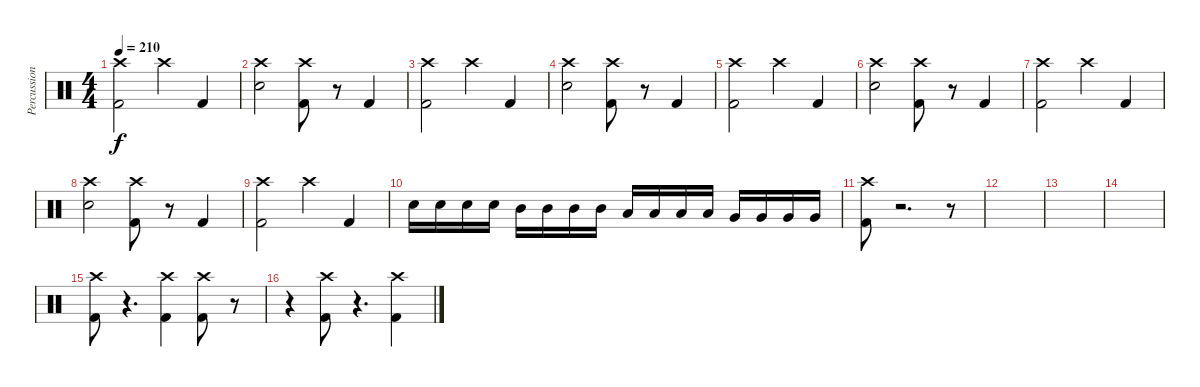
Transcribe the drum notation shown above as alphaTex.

\track ("Percussion" "Percussion") {instrument percussion}
\staff {score}
\articulation defaults
\ts (4 4)
\tempo 210
\clef neutral
\ks c
("Crash high (hit)" "Kick (hit) 2").2{dy f} "Crash high (hit)".4 "Kick (hit) 2".4 |
("Crash high (hit)" "Electric Snare (hit)").2 ("Crash high (hit)" "Kick (hit) 2").8 r.8 "Kick (hit) 2".4 |
("Crash high (hit)" "Kick (hit) 2").2 "Crash high (hit)".4 "Kick (hit) 2".4 |
("Crash high (hit)" "Electric Snare (hit)").2 ("Crash high (hit)" "Kick (hit) 2").8 r.8 "Kick (hit) 2".4 |
("Crash high (hit)" "Kick (hit) 2").2 "Crash high (hit)".4 "Kick (hit) 2".4 |
("Crash high (hit)" "Electric Snare (hit)").2 ("Crash high (hit)" "Kick (hit) 2").8 r.8 "Kick (hit) 2".4 |
("Crash high (hit)" "Kick (hit) 2").2 "Crash high (hit)".4 "Kick (hit) 2".4 |
("Crash high (hit)" "Electric Snare (hit)").2 ("Crash high (hit)" "Kick (hit) 2").8 r.8 "Kick (hit) 2".4 |
("Crash high (hit)" "Kick (hit) 2").2 "Crash high (hit)".4 "Kick (hit) 2".4 |
"Electric Snare (hit)".16 "Electric Snare (hit)".16 "Electric Snare (hit)".16 "Electric Snare (hit)".16 "Mid Tom (hit)".16 "Mid Tom (hit)".16 "Mid Tom (hit)".16 "Mid Tom (hit)".16 "Low Tom (hit)".16 "Low Tom (hit)".16 "Low Tom (hit)".16 "Low Tom (hit)".16 "Very Low Tom (hit)".16 "Very Low Tom (hit)".16 "Very Low Tom (hit)".16 "Very Low Tom (hit)".16 |
("Crash high (hit)" "Kick (hit) 2").8 r.2{d} r.8 |
|
|
|
("Crash high (hit)" "Kick (hit) 2").8 r.4{d} ("Crash high (hit)" "Kick (hit) 2").4 ("Crash high (hit)" "Kick (hit) 2").8 r.8 |
r.4 ("Crash high (hit)" "Kick (hit) 2").8 r.4{d} ("Crash high (hit)" "Kick (hit) 2").4
